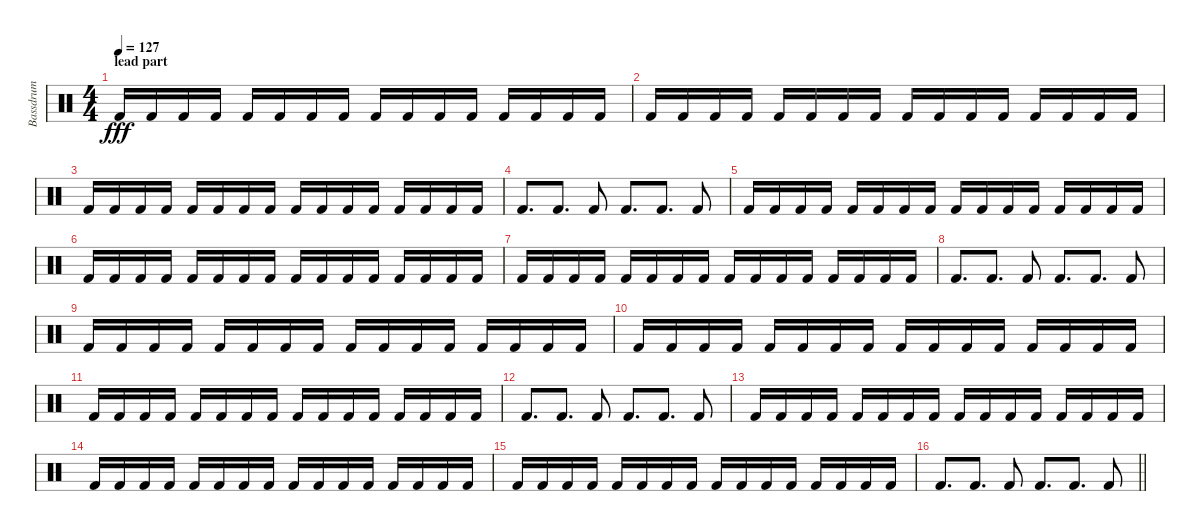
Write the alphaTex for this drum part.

\track ("Bassdrum" "Bassdrum") {instrument percussion}
\staff {score}
\articulation defaults
\ts (4 4)
\section ("" "lead part")
\tempo 127
\clef neutral
\ks c "Kick (hit) 2".16{dy fff} "Kick (hit) 2".16 "Kick (hit) 2".16 "Kick (hit) 2".16 "Kick (hit) 2".16 "Kick (hit) 2".16 "Kick (hit) 2".16 "Kick (hit) 2".16 "Kick (hit) 2".16 "Kick (hit) 2".16 "Kick (hit) 2".16 "Kick (hit) 2".16 "Kick (hit) 2".16 "Kick (hit) 2".16 "Kick (hit) 2".16 "Kick (hit) 2".16
|
"Kick (hit) 2".16 "Kick (hit) 2".16 "Kick (hit) 2".16 "Kick (hit) 2".16 "Kick (hit) 2".16 "Kick (hit) 2".16 "Kick (hit) 2".16 "Kick (hit) 2".16 "Kick (hit) 2".16 "Kick (hit) 2".16 "Kick (hit) 2".16 "Kick (hit) 2".16 "Kick (hit) 2".16 "Kick (hit) 2".16 "Kick (hit) 2".16 "Kick (hit) 2".16 |
"Kick (hit) 2".16 "Kick (hit) 2".16 "Kick (hit) 2".16 "Kick (hit) 2".16 "Kick (hit) 2".16 "Kick (hit) 2".16 "Kick (hit) 2".16 "Kick (hit) 2".16 "Kick (hit) 2".16 "Kick (hit) 2".16 "Kick (hit) 2".16 "Kick (hit) 2".16 "Kick (hit) 2".16 "Kick (hit) 2".16 "Kick (hit) 2".16 "Kick (hit) 2".16 |
"Kick (hit) 2".8{d} "Kick (hit) 2".8{d} "Kick (hit) 2".8 "Kick (hit) 2".8{d} "Kick (hit) 2".8{d} "Kick (hit) 2".8 |
"Kick (hit) 2".16 "Kick (hit) 2".16 "Kick (hit) 2".16 "Kick (hit) 2".16 "Kick (hit) 2".16 "Kick (hit) 2".16 "Kick (hit) 2".16 "Kick (hit) 2".16 "Kick (hit) 2".16 "Kick (hit) 2".16 "Kick (hit) 2".16 "Kick (hit) 2".16 "Kick (hit) 2".16 "Kick (hit) 2".16 "Kick (hit) 2".16 "Kick (hit) 2".16 |
"Kick (hit) 2".16 "Kick (hit) 2".16 "Kick (hit) 2".16 "Kick (hit) 2".16 "Kick (hit) 2".16 "Kick (hit) 2".16 "Kick (hit) 2".16 "Kick (hit) 2".16 "Kick (hit) 2".16 "Kick (hit) 2".16 "Kick (hit) 2".16 "Kick (hit) 2".16 "Kick (hit) 2".16 "Kick (hit) 2".16 "Kick (hit) 2".16 "Kick (hit) 2".16 |
"Kick (hit) 2".16 "Kick (hit) 2".16 "Kick (hit) 2".16 "Kick (hit) 2".16 "Kick (hit) 2".16 "Kick (hit) 2".16 "Kick (hit) 2".16 "Kick (hit) 2".16 "Kick (hit) 2".16 "Kick (hit) 2".16 "Kick (hit) 2".16 "Kick (hit) 2".16 "Kick (hit) 2".16 "Kick (hit) 2".16 "Kick (hit) 2".16 "Kick (hit) 2".16 |
"Kick (hit) 2".8{d} "Kick (hit) 2".8{d} "Kick (hit) 2".8 "Kick (hit) 2".8{d} "Kick (hit) 2".8{d} "Kick (hit) 2".8 |
"Kick (hit) 2".16 "Kick (hit) 2".16 "Kick (hit) 2".16 "Kick (hit) 2".16 "Kick (hit) 2".16 "Kick (hit) 2".16 "Kick (hit) 2".16 "Kick (hit) 2".16 "Kick (hit) 2".16 "Kick (hit) 2".16 "Kick (hit) 2".16 "Kick (hit) 2".16 "Kick (hit) 2".16 "Kick (hit) 2".16 "Kick (hit) 2".16 "Kick (hit) 2".16 |
"Kick (hit) 2".16 "Kick (hit) 2".16 "Kick (hit) 2".16 "Kick (hit) 2".16 "Kick (hit) 2".16 "Kick (hit) 2".16 "Kick (hit) 2".16 "Kick (hit) 2".16 "Kick (hit) 2".16 "Kick (hit) 2".16 "Kick (hit) 2".16 "Kick (hit) 2".16 "Kick (hit) 2".16 "Kick (hit) 2".16 "Kick (hit) 2".16 "Kick (hit) 2".16 |
"Kick (hit) 2".16 "Kick (hit) 2".16 "Kick (hit) 2".16 "Kick (hit) 2".16 "Kick (hit) 2".16 "Kick (hit) 2".16 "Kick (hit) 2".16 "Kick (hit) 2".16 "Kick (hit) 2".16 "Kick (hit) 2".16 "Kick (hit) 2".16 "Kick (hit) 2".16 "Kick (hit) 2".16 "Kick (hit) 2".16 "Kick (hit) 2".16 "Kick (hit) 2".16 |
"Kick (hit) 2".8{d} "Kick (hit) 2".8{d} "Kick (hit) 2".8 "Kick (hit) 2".8{d} "Kick (hit) 2".8{d} "Kick (hit) 2".8 |
"Kick (hit) 2".16 "Kick (hit) 2".16 "Kick (hit) 2".16 "Kick (hit) 2".16 "Kick (hit) 2".16 "Kick (hit) 2".16 "Kick (hit) 2".16 "Kick (hit) 2".16 "Kick (hit) 2".16 "Kick (hit) 2".16 "Kick (hit) 2".16 "Kick (hit) 2".16 "Kick (hit) 2".16 "Kick (hit) 2".16 "Kick (hit) 2".16 "Kick (hit) 2".16 |
"Kick (hit) 2".16 "Kick (hit) 2".16 "Kick (hit) 2".16 "Kick (hit) 2".16 "Kick (hit) 2".16 "Kick (hit) 2".16 "Kick (hit) 2".16 "Kick (hit) 2".16 "Kick (hit) 2".16 "Kick (hit) 2".16 "Kick (hit) 2".16 "Kick (hit) 2".16 "Kick (hit) 2".16 "Kick (hit) 2".16 "Kick (hit) 2".16 "Kick (hit) 2".16 |
"Kick (hit) 2".16 "Kick (hit) 2".16 "Kick (hit) 2".16 "Kick (hit) 2".16 "Kick (hit) 2".16 "Kick (hit) 2".16 "Kick (hit) 2".16 "Kick (hit) 2".16 "Kick (hit) 2".16 "Kick (hit) 2".16 "Kick (hit) 2".16 "Kick (hit) 2".16 "Kick (hit) 2".16 "Kick (hit) 2".16 "Kick (hit) 2".16 "Kick (hit) 2".16 |
\barLineRight lightlight "Kick (hit) 2".8{d} "Kick (hit) 2".8{d} "Kick (hit) 2".8 "Kick (hit) 2".8{d} "Kick (hit) 2".8{d} "Kick (hit) 2".8
